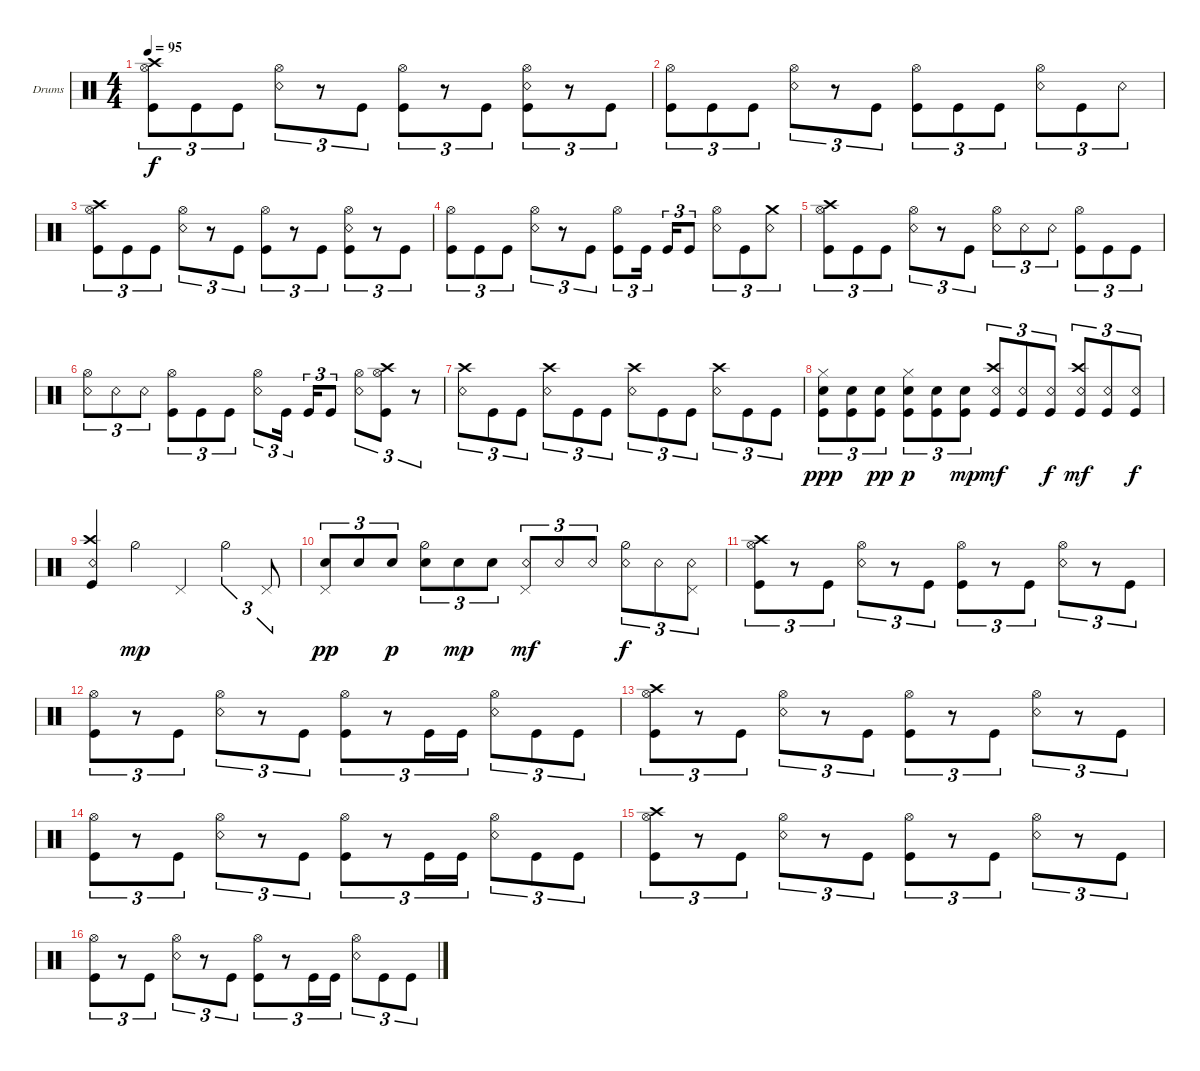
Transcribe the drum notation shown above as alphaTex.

\defaultSystemsLayout 4
\bracketExtendMode groupsimilarinstruments
\firstSystemTrackNameOrientation horizontal
\otherSystemsTrackNameOrientation horizontal
\track ("Drumkit" "Drums") {instrument percussion}
\staff {score}
\articulation defaults
\ts (4 4)
\tempo 95
\clef neutral
\ks c
("Hi-Hat (open)" "Kick (hit)" "Crash high (hit)").8{tu (3 2) dy f} "Kick (hit)".8{tu (3 2)} "Kick (hit)".8{tu (3 2)} ("Hi-Hat (open)" "Snare (rim shot)").8{tu (3 2)} r.8{tu (3 2)} "Kick (hit)".8{tu (3 2)} ("Hi-Hat (open)" "Kick (hit)").8{tu (3 2)} r.8{tu (3 2)} "Kick (hit)".8{tu (3 2)} ("Hi-Hat (open)" "Kick (hit)" "Snare (rim shot)").8{tu (3 2)} r.8{tu (3 2)} "Kick (hit)".8{tu (3 2)} |
("Kick (hit)" "Hi-Hat (open)").8{tu (3 2)} "Kick (hit)".8{tu (3 2)} "Kick (hit)".8{tu (3 2)} ("Snare (rim shot)" "Hi-Hat (open)").8{tu (3 2)} r.8{tu (3 2)} "Kick (hit)".8{tu (3 2)} ("Kick (hit)" "Hi-Hat (open)").8{tu (3 2)} "Kick (hit)".8{tu (3 2)} "Kick (hit)".8{tu (3 2)} ("Snare (rim shot)" "Hi-Hat (open)").8{tu (3 2)} "Kick (hit)".8{tu (3 2)} "Snare (rim shot)".8{tu (3 2)} |
("Hi-Hat (open)" "Kick (hit)" "Crash high (hit)").8{tu (3 2)} "Kick (hit)".8{tu (3 2)} "Kick (hit)".8{tu (3 2)} ("Hi-Hat (open)" "Snare (rim shot)").8{tu (3 2)} r.8{tu (3 2)} "Kick (hit)".8{tu (3 2)} ("Hi-Hat (open)" "Kick (hit)").8{tu (3 2)} r.8{tu (3 2)} "Kick (hit)".8{tu (3 2)} ("Hi-Hat (open)" "Kick (hit)" "Snare (rim shot)").8{tu (3 2)} r.8{tu (3 2)} "Kick (hit)".8{tu (3 2)} |
("Kick (hit)" "Hi-Hat (open)").8{tu (3 2)} "Kick (hit)".8{tu (3 2)} "Kick (hit)".8{tu (3 2)} ("Snare (rim shot)" "Hi-Hat (open)").8{tu (3 2)} r.8{tu (3 2)} "Kick (hit)".8{tu (3 2)} ("Kick (hit)" "Hi-Hat (open)").8{tu (3 2)} "Kick (hit)".16{tu (3 2)} "Kick (hit)".16{tu (3 2)} "Kick (hit)".8{tu (3 2)} ("Snare (rim shot)" "Hi-Hat (open)").8{tu (3 2)} "Kick (hit)".8{tu (3 2)} ("Snare (rim shot)" "Crash medium (hit)").8{tu (3 2)} |
("Hi-Hat (open)" "Kick (hit)" "Crash high (hit)").8{tu (3 2)} "Kick (hit)".8{tu (3 2)} "Kick (hit)".8{tu (3 2)} ("Hi-Hat (open)" "Snare (rim shot)").8{tu (3 2)} r.8{tu (3 2)} "Kick (hit)".8{tu (3 2)} ("Hi-Hat (open)" "Snare (rim shot)").8{tu (3 2)} "Snare (rim shot)".8{tu (3 2)} "Snare (rim shot)".8{tu (3 2)} ("Hi-Hat (open)" "Kick (hit)").8{tu (3 2)} "Kick (hit)".8{tu (3 2)} "Kick (hit)".8{tu (3 2)} |
("Hi-Hat (open)" "Snare (rim shot)").8{tu (3 2)} "Snare (rim shot)".8{tu (3 2)} "Snare (rim shot)".8{tu (3 2)} ("Hi-Hat (open)" "Kick (hit)").8{tu (3 2)} "Kick (hit)".8{tu (3 2)} "Kick (hit)".8{tu (3 2)} ("Hi-Hat (open)" "Snare (rim shot)").8{tu (3 2)} "Kick (hit)".16{tu (3 2)} "Kick (hit)".16{tu (3 2)} "Kick (hit)".8{tu (3 2)} ("Snare (rim shot)" "Hi-Hat (open)").8{tu (3 2)} ("Kick (hit)" "Hi-Hat (open)" "Crash high (hit)").8{tu (3 2)} r.8{tu (3 2)} |
("Crash high (hit)" "Snare (rim shot)").8{tu (3 2)} "Kick (hit)".8{tu (3 2)} "Kick (hit)".8{tu (3 2)} ("Crash high (hit)" "Snare (rim shot)").8{tu (3 2)} "Kick (hit)".8{tu (3 2)} "Kick (hit)".8{tu (3 2)} ("Crash high (hit)" "Snare (rim shot)").8{tu (3 2)} "Kick (hit)".8{tu (3 2)} "Kick (hit)".8{tu (3 2)} ("Crash high (hit)" "Snare (rim shot)").8{tu (3 2)} "Kick (hit)".8{tu (3 2)} "Kick (hit)".8{tu (3 2)} |
("Snare (hit) 2" "Hi-Hat (closed)" "Kick (hit)").8{tu (3 2) dy ppp} ("Snare (hit) 2" "Kick (hit)").8{tu (3 2)} ("Snare (hit) 2" "Kick (hit)").8{tu (3 2) dy pp} ("Snare (hit) 2" "Hi-Hat (closed)" "Kick (hit)").8{tu (3 2) dy p} ("Snare (hit) 2" "Kick (hit)").8{tu (3 2)} ("Snare (hit) 2" "Kick (hit)").8{tu (3 2) dy mp} ("Snare (rim shot)" "Crash high (hit)" "Kick (hit)").8{tu (3 2) dy mf} ("Snare (rim shot)" "Kick (hit)").8{tu (3 2)} ("Snare (rim shot)" "Kick (hit)").8{tu (3 2) dy f} ("Snare (rim shot)" "Crash high (hit)" "Kick (hit)").8{tu (3 2) dy mf} ("Snare (rim shot)" "Kick (hit)").8{tu (3 2)} ("Snare (rim shot)" "Kick (hit)").8{tu (3 2) dy f} |
("Crash high (hit)" "Snare (rim shot)" "Kick (hit)").4 "Hi-Hat (half)".4{dy mp} "Pedal Hi-Hat (hit)".4 "Hi-Hat (half)".4{tu (3 2)} "Pedal Hi-Hat (hit)".8{tu (3 2)} |
("Snare (hit) 2" "Pedal Hi-Hat (hit)").8{tu (3 2) dy pp} "Snare (hit) 2".8{tu (3 2)} "Snare (hit) 2".8{tu (3 2) dy p} ("Snare (hit) 2" "Hi-Hat (half)").8{tu (3 2)} "Snare (hit) 2".8{tu (3 2) dy mp} "Snare (hit) 2".8{tu (3 2)} ("Snare (rim shot)" "Pedal Hi-Hat (hit)").8{tu (3 2) dy mf} "Snare (rim shot)".8{tu (3 2)} "Snare (rim shot)".8{tu (3 2)} ("Snare (rim shot)" "Hi-Hat (half)").8{tu (3 2) dy f} "Snare (rim shot)".8{tu (3 2)} ("Snare (rim shot)" "Pedal Hi-Hat (hit)").8{tu (3 2)} |
("Hi-Hat (open)" "Kick (hit)" "Crash high (hit)").8{tu (3 2)} r.8{tu (3 2)} "Kick (hit)".8{tu (3 2)} ("Hi-Hat (open)" "Snare (rim shot)").8{tu (3 2)} r.8{tu (3 2)} "Kick (hit)".8{tu (3 2)} ("Hi-Hat (open)" "Kick (hit)").8{tu (3 2)} r.8{tu (3 2)} "Kick (hit)".8{tu (3 2)} ("Hi-Hat (open)" "Snare (rim shot)").8{tu (3 2)} r.8{tu (3 2)} "Kick (hit)".8{tu (3 2)} |
("Hi-Hat (open)" "Kick (hit)").8{tu (3 2)} r.8{tu (3 2)} "Kick (hit)".8{tu (3 2)} ("Hi-Hat (open)" "Snare (rim shot)").8{tu (3 2)} r.8{tu (3 2)} "Kick (hit)".8{tu (3 2)} ("Hi-Hat (open)" "Kick (hit)").8{tu (3 2)} r.8{tu (3 2)} "Kick (hit)".16{tu (3 2)} "Kick (hit)".16{tu (3 2)} ("Hi-Hat (open)" "Snare (rim shot)").8{tu (3 2)} "Kick (hit)".8{tu (3 2)} "Kick (hit)".8{tu (3 2)} |
("Hi-Hat (open)" "Kick (hit)" "Crash high (hit)").8{tu (3 2)} r.8{tu (3 2)} "Kick (hit)".8{tu (3 2)} ("Hi-Hat (open)" "Snare (rim shot)").8{tu (3 2)} r.8{tu (3 2)} "Kick (hit)".8{tu (3 2)} ("Hi-Hat (open)" "Kick (hit)").8{tu (3 2)} r.8{tu (3 2)} "Kick (hit)".8{tu (3 2)} ("Hi-Hat (open)" "Snare (rim shot)").8{tu (3 2)} r.8{tu (3 2)} "Kick (hit)".8{tu (3 2)} |
("Hi-Hat (open)" "Kick (hit)").8{tu (3 2)} r.8{tu (3 2)} "Kick (hit)".8{tu (3 2)} ("Hi-Hat (open)" "Snare (rim shot)").8{tu (3 2)} r.8{tu (3 2)} "Kick (hit)".8{tu (3 2)} ("Hi-Hat (open)" "Kick (hit)").8{tu (3 2)} r.8{tu (3 2)} "Kick (hit)".16{tu (3 2)} "Kick (hit)".16{tu (3 2)} ("Hi-Hat (open)" "Snare (rim shot)").8{tu (3 2)} "Kick (hit)".8{tu (3 2)} "Kick (hit)".8{tu (3 2)} |
("Hi-Hat (open)" "Kick (hit)" "Crash high (hit)").8{tu (3 2)} r.8{tu (3 2)} "Kick (hit)".8{tu (3 2)} ("Hi-Hat (open)" "Snare (rim shot)").8{tu (3 2)} r.8{tu (3 2)} "Kick (hit)".8{tu (3 2)} ("Hi-Hat (open)" "Kick (hit)").8{tu (3 2)} r.8{tu (3 2)} "Kick (hit)".8{tu (3 2)} ("Hi-Hat (open)" "Snare (rim shot)").8{tu (3 2)} r.8{tu (3 2)} "Kick (hit)".8{tu (3 2)} |
("Hi-Hat (open)" "Kick (hit)").8{tu (3 2)} r.8{tu (3 2)} "Kick (hit)".8{tu (3 2)} ("Hi-Hat (open)" "Snare (rim shot)").8{tu (3 2)} r.8{tu (3 2)} "Kick (hit)".8{tu (3 2)} ("Hi-Hat (open)" "Kick (hit)").8{tu (3 2)} r.8{tu (3 2)} "Kick (hit)".16{tu (3 2)} "Kick (hit)".16{tu (3 2)} ("Hi-Hat (open)" "Snare (rim shot)").8{tu (3 2)} "Kick (hit)".8{tu (3 2)} "Kick (hit)".8{tu (3 2)}
